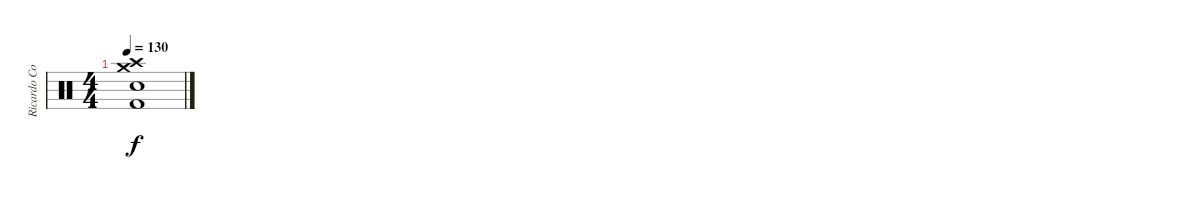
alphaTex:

\track ("Ricardo Confessori" "Ricardo Co") {instrument percussion}
\staff {score}
\articulation defaults
\ts (4 4)
\tempo 130
\clef neutral
\ks c
("Crash high (hit)" "Crash medium (hit)" "Electric Snare (hit)" "Kick (hit) 2").1{dy f}
